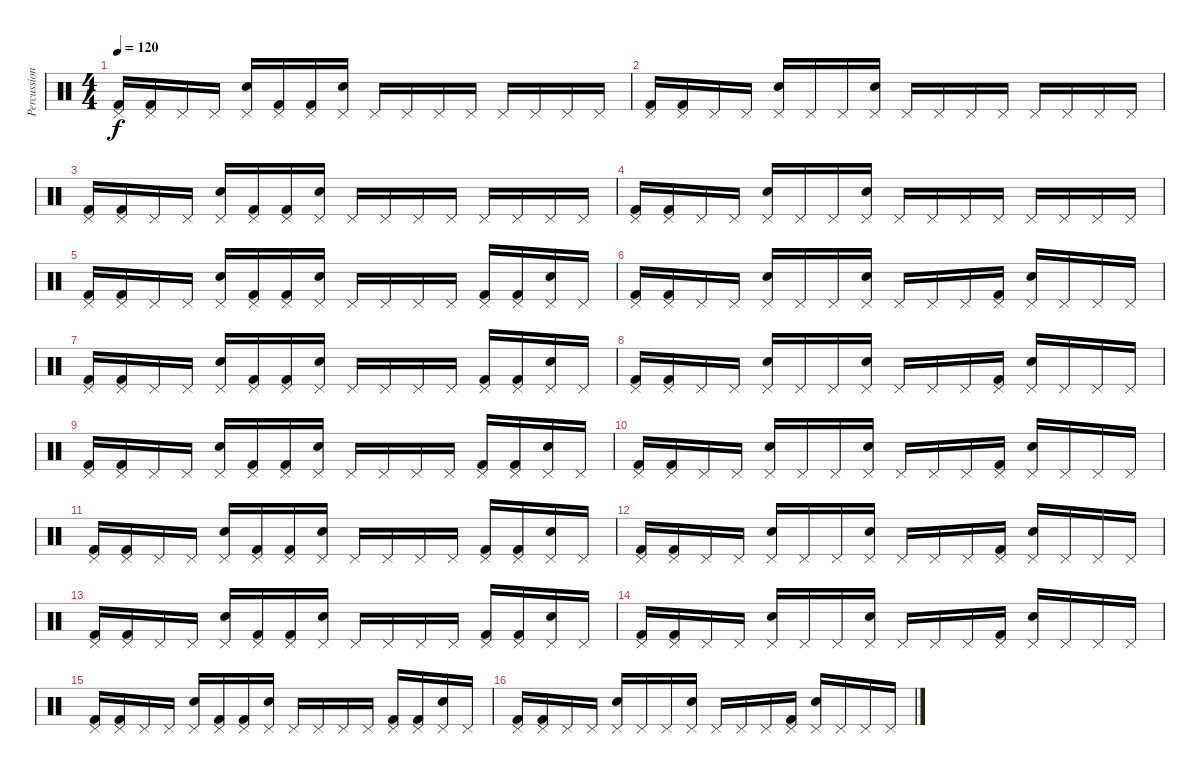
\track ("Percussions" "Percussion") {instrument percussion}
\staff {score}
\articulation defaults
\ts (4 4)
\tempo 120
\clef neutral
\ks c
("Kick (hit) 2" "Pedal Hi-Hat (hit)").16{dy f} ("Kick (hit) 2" "Pedal Hi-Hat (hit)").16 "Pedal Hi-Hat (hit)".16 "Pedal Hi-Hat (hit)".16 ("Snare (hit) 2" "Pedal Hi-Hat (hit)").16 ("Kick (hit) 2" "Pedal Hi-Hat (hit)").16 ("Kick (hit) 2" "Pedal Hi-Hat (hit)").16 ("Snare (hit) 2" "Pedal Hi-Hat (hit)").16 "Pedal Hi-Hat (hit)".16 "Pedal Hi-Hat (hit)".16 "Pedal Hi-Hat (hit)".16 "Pedal Hi-Hat (hit)".16 "Pedal Hi-Hat (hit)".16 "Pedal Hi-Hat (hit)".16 "Pedal Hi-Hat (hit)".16 "Pedal Hi-Hat (hit)".16 |
("Kick (hit) 2" "Pedal Hi-Hat (hit)").16 ("Kick (hit) 2" "Pedal Hi-Hat (hit)").16 "Pedal Hi-Hat (hit)".16 "Pedal Hi-Hat (hit)".16 ("Snare (hit) 2" "Pedal Hi-Hat (hit)").16 "Pedal Hi-Hat (hit)".16 "Pedal Hi-Hat (hit)".16 ("Snare (hit) 2" "Pedal Hi-Hat (hit)").16 "Pedal Hi-Hat (hit)".16 "Pedal Hi-Hat (hit)".16 "Pedal Hi-Hat (hit)".16 "Pedal Hi-Hat (hit)".16 "Pedal Hi-Hat (hit)".16 "Pedal Hi-Hat (hit)".16 "Pedal Hi-Hat (hit)".16 "Pedal Hi-Hat (hit)".16 |
("Kick (hit) 2" "Pedal Hi-Hat (hit)").16 ("Kick (hit) 2" "Pedal Hi-Hat (hit)").16 "Pedal Hi-Hat (hit)".16 "Pedal Hi-Hat (hit)".16 ("Snare (hit) 2" "Pedal Hi-Hat (hit)").16 ("Kick (hit) 2" "Pedal Hi-Hat (hit)").16 ("Kick (hit) 2" "Pedal Hi-Hat (hit)").16 ("Snare (hit) 2" "Pedal Hi-Hat (hit)").16 "Pedal Hi-Hat (hit)".16 "Pedal Hi-Hat (hit)".16 "Pedal Hi-Hat (hit)".16 "Pedal Hi-Hat (hit)".16 "Pedal Hi-Hat (hit)".16 "Pedal Hi-Hat (hit)".16 "Pedal Hi-Hat (hit)".16 "Pedal Hi-Hat (hit)".16 |
("Kick (hit) 2" "Pedal Hi-Hat (hit)").16 ("Kick (hit) 2" "Pedal Hi-Hat (hit)").16 "Pedal Hi-Hat (hit)".16 "Pedal Hi-Hat (hit)".16 ("Snare (hit) 2" "Pedal Hi-Hat (hit)").16 "Pedal Hi-Hat (hit)".16 "Pedal Hi-Hat (hit)".16 ("Snare (hit) 2" "Pedal Hi-Hat (hit)").16 "Pedal Hi-Hat (hit)".16 "Pedal Hi-Hat (hit)".16 "Pedal Hi-Hat (hit)".16 "Pedal Hi-Hat (hit)".16 "Pedal Hi-Hat (hit)".16 "Pedal Hi-Hat (hit)".16 "Pedal Hi-Hat (hit)".16 "Pedal Hi-Hat (hit)".16 |
("Kick (hit) 2" "Pedal Hi-Hat (hit)").16 ("Kick (hit) 2" "Pedal Hi-Hat (hit)").16 "Pedal Hi-Hat (hit)".16 "Pedal Hi-Hat (hit)".16 ("Snare (hit) 2" "Pedal Hi-Hat (hit)").16 ("Kick (hit) 2" "Pedal Hi-Hat (hit)").16 ("Kick (hit) 2" "Pedal Hi-Hat (hit)").16 ("Snare (hit) 2" "Pedal Hi-Hat (hit)").16 "Pedal Hi-Hat (hit)".16 "Pedal Hi-Hat (hit)".16 "Pedal Hi-Hat (hit)".16 "Pedal Hi-Hat (hit)".16 ("Kick (hit) 2" "Pedal Hi-Hat (hit)").16 ("Kick (hit) 2" "Pedal Hi-Hat (hit)").16 ("Snare (hit) 2" "Pedal Hi-Hat (hit)").16 "Pedal Hi-Hat (hit)".16 |
("Kick (hit) 2" "Pedal Hi-Hat (hit)").16 ("Kick (hit) 2" "Pedal Hi-Hat (hit)").16 "Pedal Hi-Hat (hit)".16 "Pedal Hi-Hat (hit)".16 ("Snare (hit) 2" "Pedal Hi-Hat (hit)").16 "Pedal Hi-Hat (hit)".16 "Pedal Hi-Hat (hit)".16 ("Snare (hit) 2" "Pedal Hi-Hat (hit)").16 "Pedal Hi-Hat (hit)".16 "Pedal Hi-Hat (hit)".16 "Pedal Hi-Hat (hit)".16 ("Kick (hit) 2" "Pedal Hi-Hat (hit)").16 ("Snare (hit) 2" "Pedal Hi-Hat (hit)").16 "Pedal Hi-Hat (hit)".16 "Pedal Hi-Hat (hit)".16 "Pedal Hi-Hat (hit)".16 |
("Kick (hit) 2" "Pedal Hi-Hat (hit)").16 ("Kick (hit) 2" "Pedal Hi-Hat (hit)").16 "Pedal Hi-Hat (hit)".16 "Pedal Hi-Hat (hit)".16 ("Snare (hit) 2" "Pedal Hi-Hat (hit)").16 ("Kick (hit) 2" "Pedal Hi-Hat (hit)").16 ("Kick (hit) 2" "Pedal Hi-Hat (hit)").16 ("Snare (hit) 2" "Pedal Hi-Hat (hit)").16 "Pedal Hi-Hat (hit)".16 "Pedal Hi-Hat (hit)".16 "Pedal Hi-Hat (hit)".16 "Pedal Hi-Hat (hit)".16 ("Kick (hit) 2" "Pedal Hi-Hat (hit)").16 ("Kick (hit) 2" "Pedal Hi-Hat (hit)").16 ("Snare (hit) 2" "Pedal Hi-Hat (hit)").16 "Pedal Hi-Hat (hit)".16 |
("Kick (hit) 2" "Pedal Hi-Hat (hit)").16 ("Kick (hit) 2" "Pedal Hi-Hat (hit)").16 "Pedal Hi-Hat (hit)".16 "Pedal Hi-Hat (hit)".16 ("Snare (hit) 2" "Pedal Hi-Hat (hit)").16 "Pedal Hi-Hat (hit)".16 "Pedal Hi-Hat (hit)".16 ("Snare (hit) 2" "Pedal Hi-Hat (hit)").16 "Pedal Hi-Hat (hit)".16 "Pedal Hi-Hat (hit)".16 "Pedal Hi-Hat (hit)".16 ("Kick (hit) 2" "Pedal Hi-Hat (hit)").16 ("Snare (hit) 2" "Pedal Hi-Hat (hit)").16 "Pedal Hi-Hat (hit)".16 "Pedal Hi-Hat (hit)".16 "Pedal Hi-Hat (hit)".16 |
("Kick (hit) 2" "Pedal Hi-Hat (hit)").16 ("Kick (hit) 2" "Pedal Hi-Hat (hit)").16 "Pedal Hi-Hat (hit)".16 "Pedal Hi-Hat (hit)".16 ("Snare (hit) 2" "Pedal Hi-Hat (hit)").16 ("Kick (hit) 2" "Pedal Hi-Hat (hit)").16 ("Kick (hit) 2" "Pedal Hi-Hat (hit)").16 ("Snare (hit) 2" "Pedal Hi-Hat (hit)").16 "Pedal Hi-Hat (hit)".16 "Pedal Hi-Hat (hit)".16 "Pedal Hi-Hat (hit)".16 "Pedal Hi-Hat (hit)".16 ("Kick (hit) 2" "Pedal Hi-Hat (hit)").16 ("Kick (hit) 2" "Pedal Hi-Hat (hit)").16 ("Snare (hit) 2" "Pedal Hi-Hat (hit)").16 "Pedal Hi-Hat (hit)".16 |
("Kick (hit) 2" "Pedal Hi-Hat (hit)").16 ("Kick (hit) 2" "Pedal Hi-Hat (hit)").16 "Pedal Hi-Hat (hit)".16 "Pedal Hi-Hat (hit)".16 ("Snare (hit) 2" "Pedal Hi-Hat (hit)").16 "Pedal Hi-Hat (hit)".16 "Pedal Hi-Hat (hit)".16 ("Snare (hit) 2" "Pedal Hi-Hat (hit)").16 "Pedal Hi-Hat (hit)".16 "Pedal Hi-Hat (hit)".16 "Pedal Hi-Hat (hit)".16 ("Kick (hit) 2" "Pedal Hi-Hat (hit)").16 ("Snare (hit) 2" "Pedal Hi-Hat (hit)").16 "Pedal Hi-Hat (hit)".16 "Pedal Hi-Hat (hit)".16 "Pedal Hi-Hat (hit)".16 |
("Kick (hit) 2" "Pedal Hi-Hat (hit)").16 ("Kick (hit) 2" "Pedal Hi-Hat (hit)").16 "Pedal Hi-Hat (hit)".16 "Pedal Hi-Hat (hit)".16 ("Snare (hit) 2" "Pedal Hi-Hat (hit)").16 ("Kick (hit) 2" "Pedal Hi-Hat (hit)").16 ("Kick (hit) 2" "Pedal Hi-Hat (hit)").16 ("Snare (hit) 2" "Pedal Hi-Hat (hit)").16 "Pedal Hi-Hat (hit)".16 "Pedal Hi-Hat (hit)".16 "Pedal Hi-Hat (hit)".16 "Pedal Hi-Hat (hit)".16 ("Kick (hit) 2" "Pedal Hi-Hat (hit)").16 ("Kick (hit) 2" "Pedal Hi-Hat (hit)").16 ("Snare (hit) 2" "Pedal Hi-Hat (hit)").16 "Pedal Hi-Hat (hit)".16 |
("Kick (hit) 2" "Pedal Hi-Hat (hit)").16 ("Kick (hit) 2" "Pedal Hi-Hat (hit)").16 "Pedal Hi-Hat (hit)".16 "Pedal Hi-Hat (hit)".16 ("Snare (hit) 2" "Pedal Hi-Hat (hit)").16 "Pedal Hi-Hat (hit)".16 "Pedal Hi-Hat (hit)".16 ("Snare (hit) 2" "Pedal Hi-Hat (hit)").16 "Pedal Hi-Hat (hit)".16 "Pedal Hi-Hat (hit)".16 "Pedal Hi-Hat (hit)".16 ("Kick (hit) 2" "Pedal Hi-Hat (hit)").16 ("Snare (hit) 2" "Pedal Hi-Hat (hit)").16 "Pedal Hi-Hat (hit)".16 "Pedal Hi-Hat (hit)".16 "Pedal Hi-Hat (hit)".16 |
("Kick (hit) 2" "Pedal Hi-Hat (hit)").16 ("Kick (hit) 2" "Pedal Hi-Hat (hit)").16 "Pedal Hi-Hat (hit)".16 "Pedal Hi-Hat (hit)".16 ("Snare (hit) 2" "Pedal Hi-Hat (hit)").16 ("Kick (hit) 2" "Pedal Hi-Hat (hit)").16 ("Kick (hit) 2" "Pedal Hi-Hat (hit)").16 ("Snare (hit) 2" "Pedal Hi-Hat (hit)").16 "Pedal Hi-Hat (hit)".16 "Pedal Hi-Hat (hit)".16 "Pedal Hi-Hat (hit)".16 "Pedal Hi-Hat (hit)".16 ("Kick (hit) 2" "Pedal Hi-Hat (hit)").16 ("Kick (hit) 2" "Pedal Hi-Hat (hit)").16 ("Snare (hit) 2" "Pedal Hi-Hat (hit)").16 "Pedal Hi-Hat (hit)".16 |
("Kick (hit) 2" "Pedal Hi-Hat (hit)").16 ("Kick (hit) 2" "Pedal Hi-Hat (hit)").16 "Pedal Hi-Hat (hit)".16 "Pedal Hi-Hat (hit)".16 ("Snare (hit) 2" "Pedal Hi-Hat (hit)").16 "Pedal Hi-Hat (hit)".16 "Pedal Hi-Hat (hit)".16 ("Snare (hit) 2" "Pedal Hi-Hat (hit)").16 "Pedal Hi-Hat (hit)".16 "Pedal Hi-Hat (hit)".16 "Pedal Hi-Hat (hit)".16 ("Kick (hit) 2" "Pedal Hi-Hat (hit)").16 ("Snare (hit) 2" "Pedal Hi-Hat (hit)").16 "Pedal Hi-Hat (hit)".16 "Pedal Hi-Hat (hit)".16 "Pedal Hi-Hat (hit)".16 |
("Kick (hit) 2" "Pedal Hi-Hat (hit)").16 ("Kick (hit) 2" "Pedal Hi-Hat (hit)").16 "Pedal Hi-Hat (hit)".16 "Pedal Hi-Hat (hit)".16 ("Snare (hit) 2" "Pedal Hi-Hat (hit)").16 ("Kick (hit) 2" "Pedal Hi-Hat (hit)").16 ("Kick (hit) 2" "Pedal Hi-Hat (hit)").16 ("Snare (hit) 2" "Pedal Hi-Hat (hit)").16 "Pedal Hi-Hat (hit)".16 "Pedal Hi-Hat (hit)".16 "Pedal Hi-Hat (hit)".16 "Pedal Hi-Hat (hit)".16 ("Kick (hit) 2" "Pedal Hi-Hat (hit)").16 ("Kick (hit) 2" "Pedal Hi-Hat (hit)").16 ("Snare (hit) 2" "Pedal Hi-Hat (hit)").16 "Pedal Hi-Hat (hit)".16 |
("Kick (hit) 2" "Pedal Hi-Hat (hit)").16 ("Kick (hit) 2" "Pedal Hi-Hat (hit)").16 "Pedal Hi-Hat (hit)".16 "Pedal Hi-Hat (hit)".16 ("Snare (hit) 2" "Pedal Hi-Hat (hit)").16 "Pedal Hi-Hat (hit)".16 "Pedal Hi-Hat (hit)".16 ("Snare (hit) 2" "Pedal Hi-Hat (hit)").16 "Pedal Hi-Hat (hit)".16 "Pedal Hi-Hat (hit)".16 "Pedal Hi-Hat (hit)".16 ("Kick (hit) 2" "Pedal Hi-Hat (hit)").16 ("Snare (hit) 2" "Pedal Hi-Hat (hit)").16 "Pedal Hi-Hat (hit)".16 "Pedal Hi-Hat (hit)".16 "Pedal Hi-Hat (hit)".16
